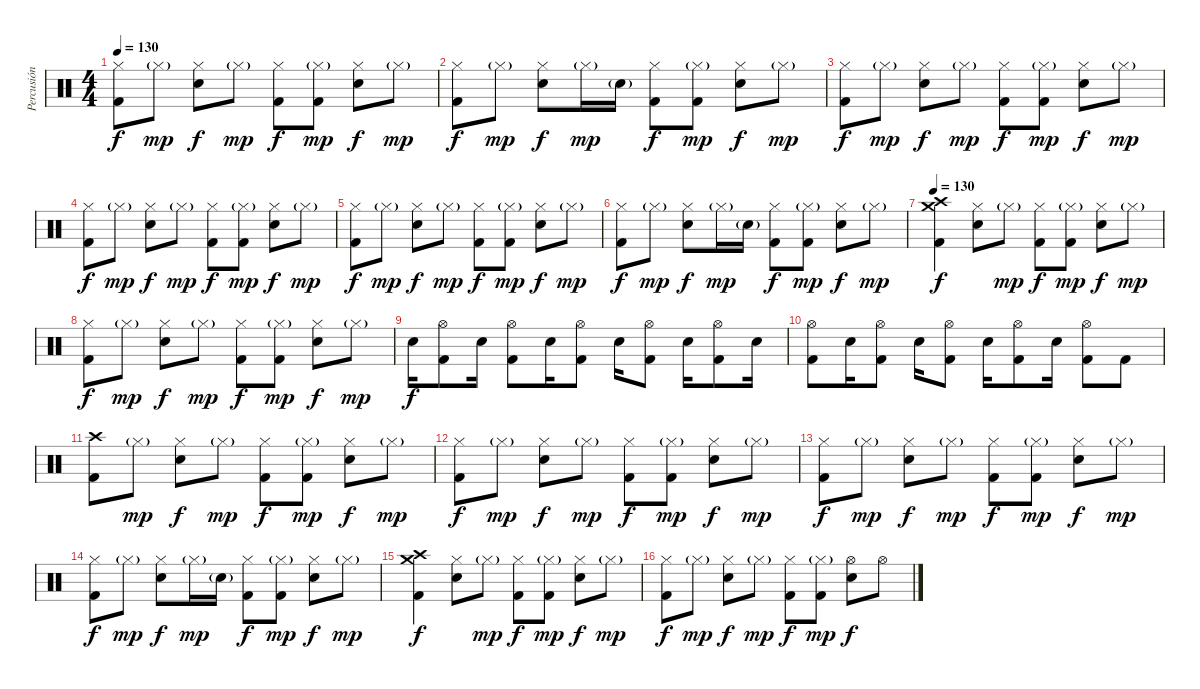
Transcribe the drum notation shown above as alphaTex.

\track ("Percusión" "Percusión") {instrument percussion}
\staff {score}
\articulation defaults
\ts (4 4)
\tempo 130
\clef neutral
\ks c
("Hi-Hat (closed)" "Kick (hit) 2").8{dy f} "Hi-Hat (closed)"{g}.8{dy mp} ("Hi-Hat (closed)" "Snare (hit) 2").8{dy f} "Hi-Hat (closed)"{g}.8{dy mp} ("Hi-Hat (closed)" "Kick (hit) 2").8{dy f} ("Hi-Hat (closed)"{g} "Kick (hit) 2").8{dy mp} ("Hi-Hat (closed)" "Snare (hit) 2").8{dy f} "Hi-Hat (closed)"{g}.8{dy mp} |
("Hi-Hat (closed)" "Kick (hit) 2").8{dy f} "Hi-Hat (closed)"{g}.8{dy mp} ("Hi-Hat (closed)" "Snare (hit) 2").8{dy f} "Hi-Hat (closed)"{g}.16{dy mp} "Snare (hit) 2"{g}.16 ("Hi-Hat (closed)" "Kick (hit) 2").8{dy f} ("Hi-Hat (closed)"{g} "Kick (hit) 2").8{dy mp} ("Hi-Hat (closed)" "Snare (hit) 2").8{dy f} "Hi-Hat (closed)"{g}.8{dy mp} |
("Hi-Hat (closed)" "Kick (hit) 2").8{dy f} "Hi-Hat (closed)"{g}.8{dy mp} ("Hi-Hat (closed)" "Snare (hit) 2").8{dy f} "Hi-Hat (closed)"{g}.8{dy mp} ("Hi-Hat (closed)" "Kick (hit) 2").8{dy f} ("Hi-Hat (closed)"{g} "Kick (hit) 2").8{dy mp} ("Hi-Hat (closed)" "Snare (hit) 2").8{dy f} "Hi-Hat (closed)"{g}.8{dy mp} |
("Hi-Hat (closed)" "Kick (hit) 2").8{dy f} "Hi-Hat (closed)"{g}.8{dy mp} ("Hi-Hat (closed)" "Snare (hit) 2").8{dy f} "Hi-Hat (closed)"{g}.8{dy mp} ("Hi-Hat (closed)" "Kick (hit) 2").8{dy f} ("Hi-Hat (closed)"{g} "Kick (hit) 2").8{dy mp} ("Hi-Hat (closed)" "Snare (hit) 2").8{dy f} "Hi-Hat (closed)"{g}.8{dy mp} |
("Hi-Hat (closed)" "Kick (hit) 2").8{dy f} "Hi-Hat (closed)"{g}.8{dy mp} ("Hi-Hat (closed)" "Snare (hit) 2").8{dy f} "Hi-Hat (closed)"{g}.8{dy mp} ("Hi-Hat (closed)" "Kick (hit) 2").8{dy f} ("Hi-Hat (closed)"{g} "Kick (hit) 2").8{dy mp} ("Hi-Hat (closed)" "Snare (hit) 2").8{dy f} "Hi-Hat (closed)"{g}.8{dy mp} |
("Hi-Hat (closed)" "Kick (hit) 2").8{dy f} "Hi-Hat (closed)"{g}.8{dy mp} ("Hi-Hat (closed)" "Snare (hit) 2").8{dy f} "Hi-Hat (closed)"{g}.16{dy mp} "Snare (hit) 2"{g}.16 ("Hi-Hat (closed)" "Kick (hit) 2").8{dy f} ("Hi-Hat (closed)"{g} "Kick (hit) 2").8{dy mp} ("Hi-Hat (closed)" "Snare (hit) 2").8{dy f} "Hi-Hat (closed)"{g}.8{dy mp} |
\tempo 130
("Crash high (hit)" "Crash medium (hit)" "Kick (hit) 2").4{dy f} ("Hi-Hat (closed)" "Snare (hit) 2").8 "Hi-Hat (closed)"{g}.8{dy mp} ("Hi-Hat (closed)" "Kick (hit) 2").8{dy f} ("Hi-Hat (closed)"{g} "Kick (hit) 2").8{dy mp} ("Hi-Hat (closed)" "Snare (hit) 2").8{dy f} "Hi-Hat (closed)"{g}.8{dy mp} |
("Hi-Hat (closed)" "Kick (hit) 2").8{dy f} "Hi-Hat (closed)"{g}.8{dy mp} ("Hi-Hat (closed)" "Snare (hit) 2").8{dy f} "Hi-Hat (closed)"{g}.8{dy mp} ("Hi-Hat (closed)" "Kick (hit) 2").8{dy f} ("Hi-Hat (closed)"{g} "Kick (hit) 2").8{dy mp} ("Hi-Hat (closed)" "Snare (hit) 2").8{dy f} "Hi-Hat (closed)"{g}.8{dy mp} |
"Snare (hit) 2".16{dy f} ("Hi-Hat (open)" "Kick (hit) 2").8 "Snare (hit) 2".16 ("Hi-Hat (open)" "Kick (hit) 2").8 "Snare (hit) 2".16 ("Hi-Hat (open)" "Kick (hit) 2").8 "Snare (hit) 2".16 ("Hi-Hat (open)" "Kick (hit) 2").8 "Snare (hit) 2".16 ("Hi-Hat (open)" "Kick (hit) 2").8 "Snare (hit) 2".16 |
("Hi-Hat (open)" "Kick (hit) 2").8 "Snare (hit) 2".16 ("Hi-Hat (open)" "Kick (hit) 2").8 "Snare (hit) 2".16 ("Hi-Hat (open)" "Kick (hit) 2").8 "Snare (hit) 2".16 ("Hi-Hat (open)" "Kick (hit) 2").8 "Snare (hit) 2".16 ("Hi-Hat (open)" "Kick (hit) 2").8 "Kick (hit) 2".8 |
("Crash high (hit)" "Kick (hit) 2").8 "Hi-Hat (closed)"{g}.8{dy mp} ("Hi-Hat (closed)" "Snare (hit) 2").8{dy f} "Hi-Hat (closed)"{g}.8{dy mp} ("Hi-Hat (closed)" "Kick (hit) 2").8{dy f} ("Hi-Hat (closed)"{g} "Kick (hit) 2").8{dy mp} ("Hi-Hat (closed)" "Snare (hit) 2").8{dy f} "Hi-Hat (closed)"{g}.8{dy mp} |
("Hi-Hat (closed)" "Kick (hit) 2").8{dy f} "Hi-Hat (closed)"{g}.8{dy mp} ("Hi-Hat (closed)" "Snare (hit) 2").8{dy f} "Hi-Hat (closed)"{g}.8{dy mp} ("Hi-Hat (closed)" "Kick (hit) 2").8{dy f} ("Hi-Hat (closed)"{g} "Kick (hit) 2").8{dy mp} ("Hi-Hat (closed)" "Snare (hit) 2").8{dy f} "Hi-Hat (closed)"{g}.8{dy mp} |
("Hi-Hat (closed)" "Kick (hit) 2").8{dy f} "Hi-Hat (closed)"{g}.8{dy mp} ("Hi-Hat (closed)" "Snare (hit) 2").8{dy f} "Hi-Hat (closed)"{g}.8{dy mp} ("Hi-Hat (closed)" "Kick (hit) 2").8{dy f} ("Hi-Hat (closed)"{g} "Kick (hit) 2").8{dy mp} ("Hi-Hat (closed)" "Snare (hit) 2").8{dy f} "Hi-Hat (closed)"{g}.8{dy mp} |
("Hi-Hat (closed)" "Kick (hit) 2").8{dy f} "Hi-Hat (closed)"{g}.8{dy mp} ("Hi-Hat (closed)" "Snare (hit) 2").8{dy f} "Hi-Hat (closed)"{g}.16{dy mp} "Snare (hit) 2"{g}.16 ("Hi-Hat (closed)" "Kick (hit) 2").8{dy f} ("Hi-Hat (closed)"{g} "Kick (hit) 2").8{dy mp} ("Hi-Hat (closed)" "Snare (hit) 2").8{dy f} "Hi-Hat (closed)"{g}.8{dy mp} |
("Crash high (hit)" "Crash medium (hit)" "Kick (hit) 2").4{dy f} ("Hi-Hat (closed)" "Snare (hit) 2").8 "Hi-Hat (closed)"{g}.8{dy mp} ("Hi-Hat (closed)" "Kick (hit) 2").8{dy f} ("Hi-Hat (closed)"{g} "Kick (hit) 2").8{dy mp} ("Hi-Hat (closed)" "Snare (hit) 2").8{dy f} "Hi-Hat (closed)"{g}.8{dy mp} |
("Hi-Hat (closed)" "Kick (hit) 2").8{dy f} "Hi-Hat (closed)"{g}.8{dy mp} ("Hi-Hat (closed)" "Snare (hit) 2").8{dy f} "Hi-Hat (closed)"{g}.8{dy mp} ("Hi-Hat (closed)" "Kick (hit) 2").8{dy f} ("Hi-Hat (closed)"{g} "Kick (hit) 2").8{dy mp} ("Hi-Hat (open)" "Snare (hit) 2").8{dy f} "Hi-Hat (open)".8
